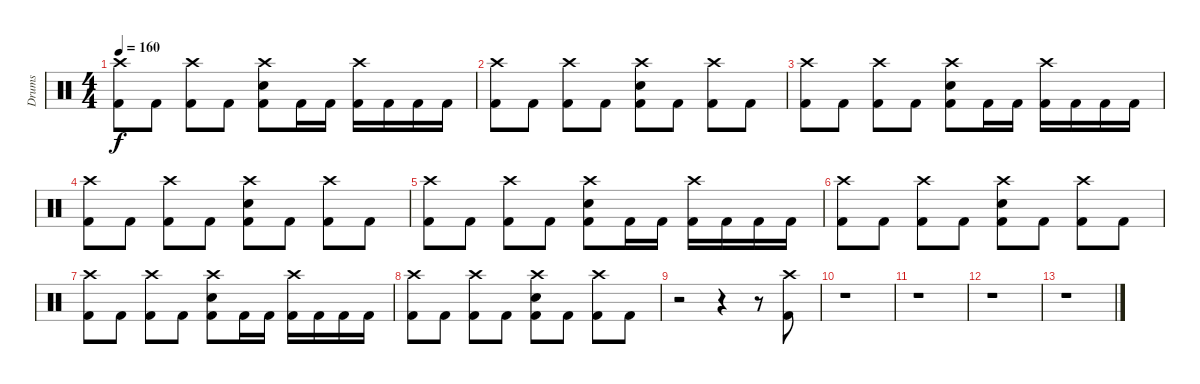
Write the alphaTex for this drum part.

\track ("Drums" "Drums") {instrument percussion}
\staff {score}
\articulation defaults
\ts (4 4)
\tempo 160
\clef neutral
\ks c
("Crash high (hit)" "Kick (hit) 2").8{dy f} "Kick (hit) 2".8 ("Crash high (hit)" "Kick (hit) 2").8 "Kick (hit) 2".8 ("Crash high (hit)" "Electric Snare (hit)" "Kick (hit) 2").8 "Kick (hit) 2".16 "Kick (hit) 2".16 ("Crash high (hit)" "Kick (hit) 2").16 "Kick (hit) 2".16 "Kick (hit) 2".16 "Kick (hit) 2".16 |
("Crash high (hit)" "Kick (hit) 2").8 "Kick (hit) 2".8 ("Crash high (hit)" "Kick (hit) 2").8 "Kick (hit) 2".8 ("Crash high (hit)" "Electric Snare (hit)" "Kick (hit) 2").8 "Kick (hit) 2".8 ("Crash high (hit)" "Kick (hit) 2").8 "Kick (hit) 2".8 |
("Crash high (hit)" "Kick (hit) 2").8 "Kick (hit) 2".8 ("Crash high (hit)" "Kick (hit) 2").8 "Kick (hit) 2".8 ("Crash high (hit)" "Electric Snare (hit)" "Kick (hit) 2").8 "Kick (hit) 2".16 "Kick (hit) 2".16 ("Crash high (hit)" "Kick (hit) 2").16 "Kick (hit) 2".16 "Kick (hit) 2".16 "Kick (hit) 2".16 |
("Crash high (hit)" "Kick (hit) 2").8 "Kick (hit) 2".8 ("Crash high (hit)" "Kick (hit) 2").8 "Kick (hit) 2".8 ("Crash high (hit)" "Electric Snare (hit)" "Kick (hit) 2").8 "Kick (hit) 2".8 ("Crash high (hit)" "Kick (hit) 2").8 "Kick (hit) 2".8 |
("Crash high (hit)" "Kick (hit) 2").8 "Kick (hit) 2".8 ("Crash high (hit)" "Kick (hit) 2").8 "Kick (hit) 2".8 ("Crash high (hit)" "Electric Snare (hit)" "Kick (hit) 2").8 "Kick (hit) 2".16 "Kick (hit) 2".16 ("Crash high (hit)" "Kick (hit) 2").16 "Kick (hit) 2".16 "Kick (hit) 2".16 "Kick (hit) 2".16 |
("Crash high (hit)" "Kick (hit) 2").8 "Kick (hit) 2".8 ("Crash high (hit)" "Kick (hit) 2").8 "Kick (hit) 2".8 ("Crash high (hit)" "Electric Snare (hit)" "Kick (hit) 2").8 "Kick (hit) 2".8 ("Crash high (hit)" "Kick (hit) 2").8 "Kick (hit) 2".8 |
("Crash high (hit)" "Kick (hit) 2").8 "Kick (hit) 2".8 ("Crash high (hit)" "Kick (hit) 2").8 "Kick (hit) 2".8 ("Crash high (hit)" "Electric Snare (hit)" "Kick (hit) 2").8 "Kick (hit) 2".16 "Kick (hit) 2".16 ("Crash high (hit)" "Kick (hit) 2").16 "Kick (hit) 2".16 "Kick (hit) 2".16 "Kick (hit) 2".16 |
("Crash high (hit)" "Kick (hit) 2").8 "Kick (hit) 2".8 ("Crash high (hit)" "Kick (hit) 2").8 "Kick (hit) 2".8 ("Crash high (hit)" "Electric Snare (hit)" "Kick (hit) 2").8 "Kick (hit) 2".8 ("Crash high (hit)" "Kick (hit) 2").8 "Kick (hit) 2".8 |
r.2 r.4 r.8 ("Crash high (hit)" "Kick (hit) 2").8 |
r.1 |
r.1 |
r.1 |
r.1
